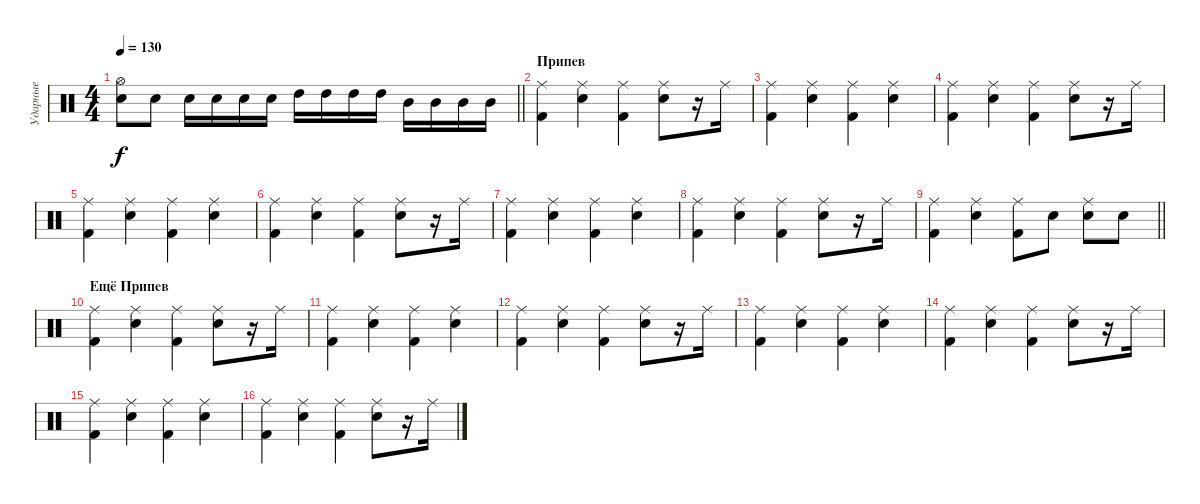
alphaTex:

\track ("Ударные" "Ударные") {instrument percussion}
\staff {score}
\articulation defaults
\ts (4 4)
\tempo 130
\clef neutral
\barLineRight lightlight
\ks c
("Hi-Hat (open)" "Snare (hit) 2").8{dy f} "Snare (hit) 2".8 "Snare (hit) 2".16 "Snare (hit) 2".16 "Snare (hit) 2".16 "Snare (hit) 2".16 "High Tom (hit)".16 "High Tom (hit)".16 "High Tom (hit)".16 "High Tom (hit)".16 "Mid Tom (hit)".16 "Mid Tom (hit)".16 "Mid Tom (hit)".16 "Mid Tom (hit)".16 |
\section ("" "Припев")
("Ride (middle)" "Kick (hit) 2").4 ("Ride (middle)" "Snare (hit) 2").4 ("Ride (middle)" "Kick (hit) 2").4 ("Ride (middle)" "Snare (hit) 2").8 r.16 "Ride (middle)".16 |
("Ride (middle)" "Kick (hit) 2").4 ("Ride (middle)" "Snare (hit) 2").4 ("Ride (middle)" "Kick (hit) 2").4 ("Ride (middle)" "Snare (hit) 2").4 |
("Ride (middle)" "Kick (hit) 2").4 ("Ride (middle)" "Snare (hit) 2").4 ("Ride (middle)" "Kick (hit) 2").4 ("Ride (middle)" "Snare (hit) 2").8 r.16 "Ride (middle)".16 |
("Ride (middle)" "Kick (hit) 2").4 ("Ride (middle)" "Snare (hit) 2").4 ("Ride (middle)" "Kick (hit) 2").4 ("Ride (middle)" "Snare (hit) 2").4 |
("Ride (middle)" "Kick (hit) 2").4 ("Ride (middle)" "Snare (hit) 2").4 ("Ride (middle)" "Kick (hit) 2").4 ("Ride (middle)" "Snare (hit) 2").8 r.16 "Ride (middle)".16 |
("Ride (middle)" "Kick (hit) 2").4 ("Ride (middle)" "Snare (hit) 2").4 ("Ride (middle)" "Kick (hit) 2").4 ("Ride (middle)" "Snare (hit) 2").4 |
("Ride (middle)" "Kick (hit) 2").4 ("Ride (middle)" "Snare (hit) 2").4 ("Ride (middle)" "Kick (hit) 2").4 ("Ride (middle)" "Snare (hit) 2").8 r.16 "Ride (middle)".16 |
\barLineRight lightlight
("Ride (middle)" "Kick (hit) 2").4 ("Ride (middle)" "Snare (hit) 2").4 ("Ride (middle)" "Kick (hit) 2").8 "Snare (hit) 2".8 ("Ride (middle)" "Snare (hit) 2").8 "Snare (hit) 2".8 |
\section ("" "Ещё Припев")
("Ride (middle)" "Kick (hit) 2").4 ("Ride (middle)" "Snare (hit) 2").4 ("Ride (middle)" "Kick (hit) 2").4 ("Ride (middle)" "Snare (hit) 2").8 r.16 "Ride (middle)".16 |
("Ride (middle)" "Kick (hit) 2").4 ("Ride (middle)" "Snare (hit) 2").4 ("Ride (middle)" "Kick (hit) 2").4 ("Ride (middle)" "Snare (hit) 2").4 |
("Ride (middle)" "Kick (hit) 2").4 ("Ride (middle)" "Snare (hit) 2").4 ("Ride (middle)" "Kick (hit) 2").4 ("Ride (middle)" "Snare (hit) 2").8 r.16 "Ride (middle)".16 |
("Ride (middle)" "Kick (hit) 2").4 ("Ride (middle)" "Snare (hit) 2").4 ("Ride (middle)" "Kick (hit) 2").4 ("Ride (middle)" "Snare (hit) 2").4 |
("Ride (middle)" "Kick (hit) 2").4 ("Ride (middle)" "Snare (hit) 2").4 ("Ride (middle)" "Kick (hit) 2").4 ("Ride (middle)" "Snare (hit) 2").8 r.16 "Ride (middle)".16 |
("Ride (middle)" "Kick (hit) 2").4 ("Ride (middle)" "Snare (hit) 2").4 ("Ride (middle)" "Kick (hit) 2").4 ("Ride (middle)" "Snare (hit) 2").4 |
("Ride (middle)" "Kick (hit) 2").4 ("Ride (middle)" "Snare (hit) 2").4 ("Ride (middle)" "Kick (hit) 2").4 ("Ride (middle)" "Snare (hit) 2").8 r.16 "Ride (middle)".16
